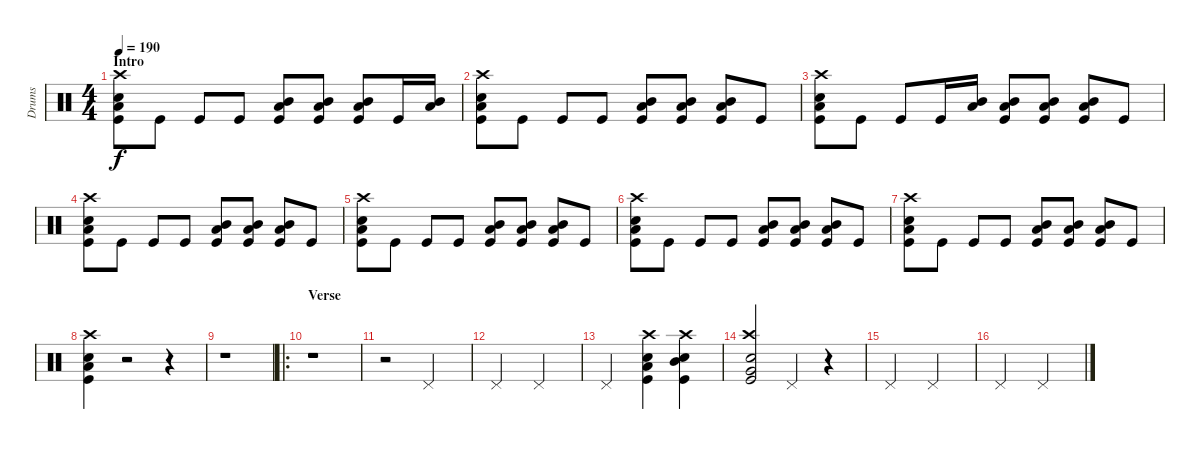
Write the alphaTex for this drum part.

\track ("Drums" "Drums") {instrument percussion}
\staff {score}
\articulation defaults
\ts (4 4)
\section ("" "Intro")
\tempo 190
\clef neutral
\ks c
("Snare (hit) 2" "Low Tom (hit)" "Kick (hit)" "Crash high (hit)").8{dy f} "Kick (hit)".8 "Kick (hit)".8 "Kick (hit)".8 ("Mid Tom (hit)" "Low Tom (hit)" "Kick (hit)").8 ("Mid Tom (hit)" "Low Tom (hit)" "Kick (hit)").8 ("Mid Tom (hit)" "Low Tom (hit)" "Kick (hit)").8 "Kick (hit)".16 ("Mid Tom (hit)" "Low Tom (hit)").16 |
("Snare (hit) 2" "Low Tom (hit)" "Kick (hit)" "Crash high (hit)").8 "Kick (hit)".8 "Kick (hit)".8 "Kick (hit)".8 ("Mid Tom (hit)" "Low Tom (hit)" "Kick (hit)").8 ("Mid Tom (hit)" "Low Tom (hit)" "Kick (hit)").8 ("Mid Tom (hit)" "Low Tom (hit)" "Kick (hit)").8 "Kick (hit)".8 |
("Snare (hit) 2" "Low Tom (hit)" "Kick (hit)" "Crash high (hit)").8 "Kick (hit)".8 "Kick (hit)".8 "Kick (hit)".16 ("Mid Tom (hit)" "Low Tom (hit)").16 ("Mid Tom (hit)" "Low Tom (hit)" "Kick (hit)").8 ("Mid Tom (hit)" "Low Tom (hit)" "Kick (hit)").8 ("Mid Tom (hit)" "Low Tom (hit)" "Kick (hit)").8 "Kick (hit)".8 |
("Snare (hit) 2" "Low Tom (hit)" "Kick (hit)" "Crash high (hit)").8 "Kick (hit)".8 "Kick (hit)".8 "Kick (hit)".8 ("Mid Tom (hit)" "Low Tom (hit)" "Kick (hit)").8 ("Mid Tom (hit)" "Low Tom (hit)" "Kick (hit)").8 ("Mid Tom (hit)" "Low Tom (hit)" "Kick (hit)").8 "Kick (hit)".8 |
("Snare (hit) 2" "Low Tom (hit)" "Kick (hit)" "Crash high (hit)").8 "Kick (hit)".8 "Kick (hit)".8 "Kick (hit)".8 ("Mid Tom (hit)" "Low Tom (hit)" "Kick (hit)").8 ("Mid Tom (hit)" "Low Tom (hit)" "Kick (hit)").8 ("Mid Tom (hit)" "Low Tom (hit)" "Kick (hit)").8 "Kick (hit)".8 |
("Snare (hit) 2" "Low Tom (hit)" "Kick (hit)" "Crash high (hit)").8 "Kick (hit)".8 "Kick (hit)".8 "Kick (hit)".8 ("Mid Tom (hit)" "Low Tom (hit)" "Kick (hit)").8 ("Mid Tom (hit)" "Low Tom (hit)" "Kick (hit)").8 ("Mid Tom (hit)" "Low Tom (hit)" "Kick (hit)").8 "Kick (hit)".8 |
("Snare (hit) 2" "Low Tom (hit)" "Kick (hit)" "Crash high (hit)").8 "Kick (hit)".8 "Kick (hit)".8 "Kick (hit)".8 ("Mid Tom (hit)" "Low Tom (hit)" "Kick (hit)").8 ("Mid Tom (hit)" "Low Tom (hit)" "Kick (hit)").8 ("Mid Tom (hit)" "Low Tom (hit)" "Kick (hit)").8 "Kick (hit)".8 |
("Snare (hit) 2" "Low Tom (hit)" "Kick (hit)" "Crash high (hit)").4 r.2 r.4 |
r.1 |
\ro
\section ("" "Verse")
r.1 |
r.2 "Pedal Hi-Hat (hit)".2 |
"Pedal Hi-Hat (hit)".2 "Pedal Hi-Hat (hit)".2 |
"Pedal Hi-Hat (hit)".2 ("Snare (hit) 2" "Low Tom (hit)" "Kick (hit)" "Crash high (hit)").4 ("Snare (hit) 2" "Mid Tom (hit)" "Kick (hit)" "Crash high (hit)").4 |
("Snare (hit) 2" "Very Low Tom (hit)" "Kick (hit)" "Crash high (hit)").2 "Pedal Hi-Hat (hit)".4 r.4 |
"Pedal Hi-Hat (hit)".2 "Pedal Hi-Hat (hit)".2 |
"Pedal Hi-Hat (hit)".2 "Pedal Hi-Hat (hit)".2
